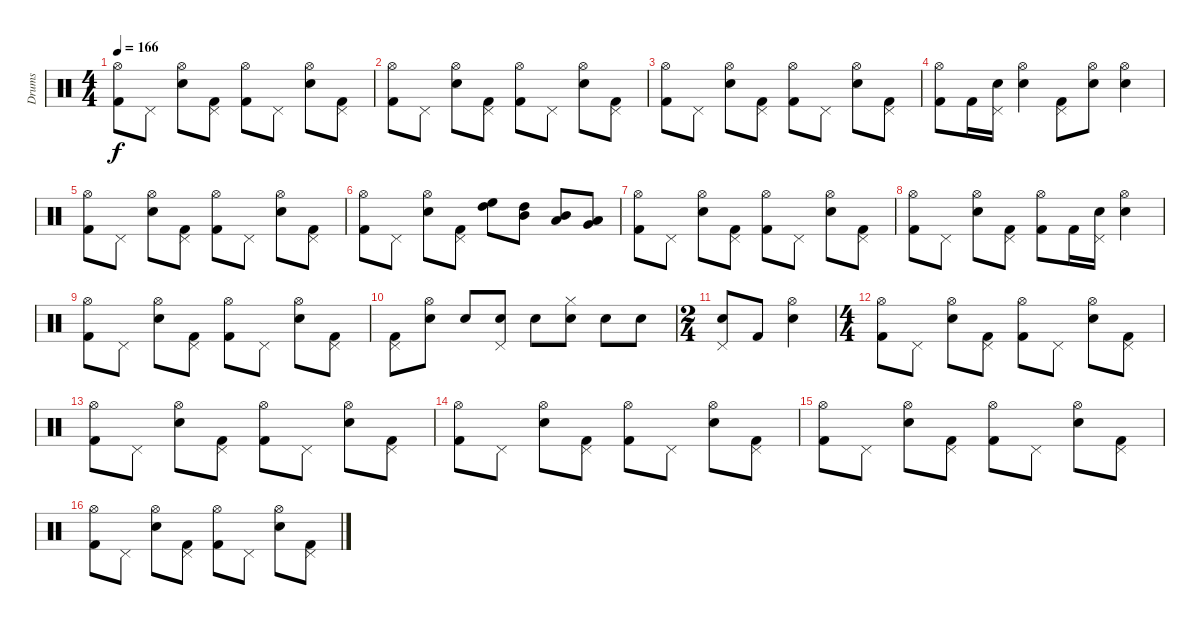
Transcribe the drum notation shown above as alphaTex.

\track ("Drums" "Drums") {instrument percussion}
\staff {score}
\articulation defaults
\ts (4 4)
\tempo 166
\clef neutral
\ks c
("Kick (hit) 2" "Hi-Hat (open)").8{dy f} "Pedal Hi-Hat (hit)".8 ("Snare (hit) 2" "Hi-Hat (open)").8 ("Kick (hit) 2" "Pedal Hi-Hat (hit)").8 ("Kick (hit) 2" "Hi-Hat (open)").8 "Pedal Hi-Hat (hit)".8 ("Snare (hit) 2" "Hi-Hat (open)").8 ("Kick (hit) 2" "Pedal Hi-Hat (hit)").8 |
("Kick (hit) 2" "Hi-Hat (open)").8 "Pedal Hi-Hat (hit)".8 ("Snare (hit) 2" "Hi-Hat (open)").8 ("Kick (hit) 2" "Pedal Hi-Hat (hit)").8 ("Kick (hit) 2" "Hi-Hat (open)").8 "Pedal Hi-Hat (hit)".8 ("Snare (hit) 2" "Hi-Hat (open)").8 ("Kick (hit) 2" "Pedal Hi-Hat (hit)").8 |
("Kick (hit) 2" "Hi-Hat (open)").8 "Pedal Hi-Hat (hit)".8 ("Snare (hit) 2" "Hi-Hat (open)").8 ("Kick (hit) 2" "Pedal Hi-Hat (hit)").8 ("Kick (hit) 2" "Hi-Hat (open)").8 "Pedal Hi-Hat (hit)".8 ("Snare (hit) 2" "Hi-Hat (open)").8 ("Kick (hit) 2" "Pedal Hi-Hat (hit)").8 |
("Kick (hit) 2" "Hi-Hat (open)").8 "Kick (hit) 2".16 ("Snare (hit) 2" "Pedal Hi-Hat (hit)").16 ("Snare (hit) 2" "Hi-Hat (open)").4 ("Kick (hit) 2" "Pedal Hi-Hat (hit)").8 ("Snare (hit) 2" "Hi-Hat (open)").8 ("Snare (hit) 2" "Hi-Hat (open)").4 |
("Kick (hit) 2" "Hi-Hat (open)").8 "Pedal Hi-Hat (hit)".8 ("Snare (hit) 2" "Hi-Hat (open)").8 ("Kick (hit) 2" "Pedal Hi-Hat (hit)").8 ("Kick (hit) 2" "Hi-Hat (open)").8 "Pedal Hi-Hat (hit)".8 ("Snare (hit) 2" "Hi-Hat (open)").8 ("Kick (hit) 2" "Pedal Hi-Hat (hit)").8 |
("Kick (hit) 2" "Hi-Hat (open)").8 "Pedal Hi-Hat (hit)".8 ("Snare (hit) 2" "Hi-Hat (open)").8 ("Kick (hit) 2" "Pedal Hi-Hat (hit)").8 ("High Tom (hit)" "High Floor Tom (hit)").8 ("Mid Tom (hit)" "High Tom (hit)").8 ("Low Tom (hit)" "Mid Tom (hit)").8 ("Very Low Tom (hit)" "Low Tom (hit)").8 |
("Kick (hit) 2" "Hi-Hat (open)").8 "Pedal Hi-Hat (hit)".8 ("Snare (hit) 2" "Hi-Hat (open)").8 ("Kick (hit) 2" "Pedal Hi-Hat (hit)").8 ("Kick (hit) 2" "Hi-Hat (open)").8 "Pedal Hi-Hat (hit)".8 ("Snare (hit) 2" "Hi-Hat (open)").8 ("Kick (hit) 2" "Pedal Hi-Hat (hit)").8 |
("Kick (hit) 2" "Hi-Hat (open)").8 "Pedal Hi-Hat (hit)".8 ("Snare (hit) 2" "Hi-Hat (open)").8 ("Kick (hit) 2" "Pedal Hi-Hat (hit)").8 ("Kick (hit) 2" "Hi-Hat (open)").8 "Kick (hit) 2".16 ("Snare (hit) 2" "Pedal Hi-Hat (hit)").16 ("Snare (hit) 2" "Hi-Hat (open)").4 |
("Kick (hit) 2" "Hi-Hat (open)").8 "Pedal Hi-Hat (hit)".8 ("Snare (hit) 2" "Hi-Hat (open)").8 ("Kick (hit) 2" "Pedal Hi-Hat (hit)").8 ("Kick (hit) 2" "Hi-Hat (open)").8 "Pedal Hi-Hat (hit)".8 ("Snare (hit) 2" "Hi-Hat (open)").8 ("Kick (hit) 2" "Pedal Hi-Hat (hit)").8 |
("Kick (hit) 2" "Pedal Hi-Hat (hit)").8 ("Snare (hit) 2" "Hi-Hat (open)").8 "Snare (hit) 2".8 ("Snare (hit) 2" "Pedal Hi-Hat (hit)").8 "Snare (hit) 2".8 ("Snare (hit) 2" "Hi-Hat (closed)").8 "Snare (hit) 2".8 "Snare (hit) 2".8 |
\ts (2 4)
("Snare (hit) 2" "Pedal Hi-Hat (hit)").8 "Kick (hit) 2".8 ("Snare (hit) 2" "Hi-Hat (open)").4 |
\ts (4 4)
("Kick (hit) 2" "Hi-Hat (open)").8 "Pedal Hi-Hat (hit)".8 ("Snare (hit) 2" "Hi-Hat (open)").8 ("Kick (hit) 2" "Pedal Hi-Hat (hit)").8 ("Kick (hit) 2" "Hi-Hat (open)").8 "Pedal Hi-Hat (hit)".8 ("Snare (hit) 2" "Hi-Hat (open)").8 ("Kick (hit) 2" "Pedal Hi-Hat (hit)").8 |
("Kick (hit) 2" "Hi-Hat (open)").8 "Pedal Hi-Hat (hit)".8 ("Snare (hit) 2" "Hi-Hat (open)").8 ("Kick (hit) 2" "Pedal Hi-Hat (hit)").8 ("Kick (hit) 2" "Hi-Hat (open)").8 "Pedal Hi-Hat (hit)".8 ("Snare (hit) 2" "Hi-Hat (open)").8 ("Kick (hit) 2" "Pedal Hi-Hat (hit)").8 |
("Kick (hit) 2" "Hi-Hat (open)").8 "Pedal Hi-Hat (hit)".8 ("Snare (hit) 2" "Hi-Hat (open)").8 ("Kick (hit) 2" "Pedal Hi-Hat (hit)").8 ("Kick (hit) 2" "Hi-Hat (open)").8 "Pedal Hi-Hat (hit)".8 ("Snare (hit) 2" "Hi-Hat (open)").8 ("Kick (hit) 2" "Pedal Hi-Hat (hit)").8 |
("Kick (hit) 2" "Hi-Hat (open)").8 "Pedal Hi-Hat (hit)".8 ("Snare (hit) 2" "Hi-Hat (open)").8 ("Kick (hit) 2" "Pedal Hi-Hat (hit)").8 ("Kick (hit) 2" "Hi-Hat (open)").8 "Pedal Hi-Hat (hit)".8 ("Snare (hit) 2" "Hi-Hat (open)").8 ("Kick (hit) 2" "Pedal Hi-Hat (hit)").8 |
("Kick (hit) 2" "Hi-Hat (open)").8 "Pedal Hi-Hat (hit)".8 ("Snare (hit) 2" "Hi-Hat (open)").8 ("Kick (hit) 2" "Pedal Hi-Hat (hit)").8 ("Kick (hit) 2" "Hi-Hat (open)").8 "Pedal Hi-Hat (hit)".8 ("Snare (hit) 2" "Hi-Hat (open)").8 ("Kick (hit) 2" "Pedal Hi-Hat (hit)").8
